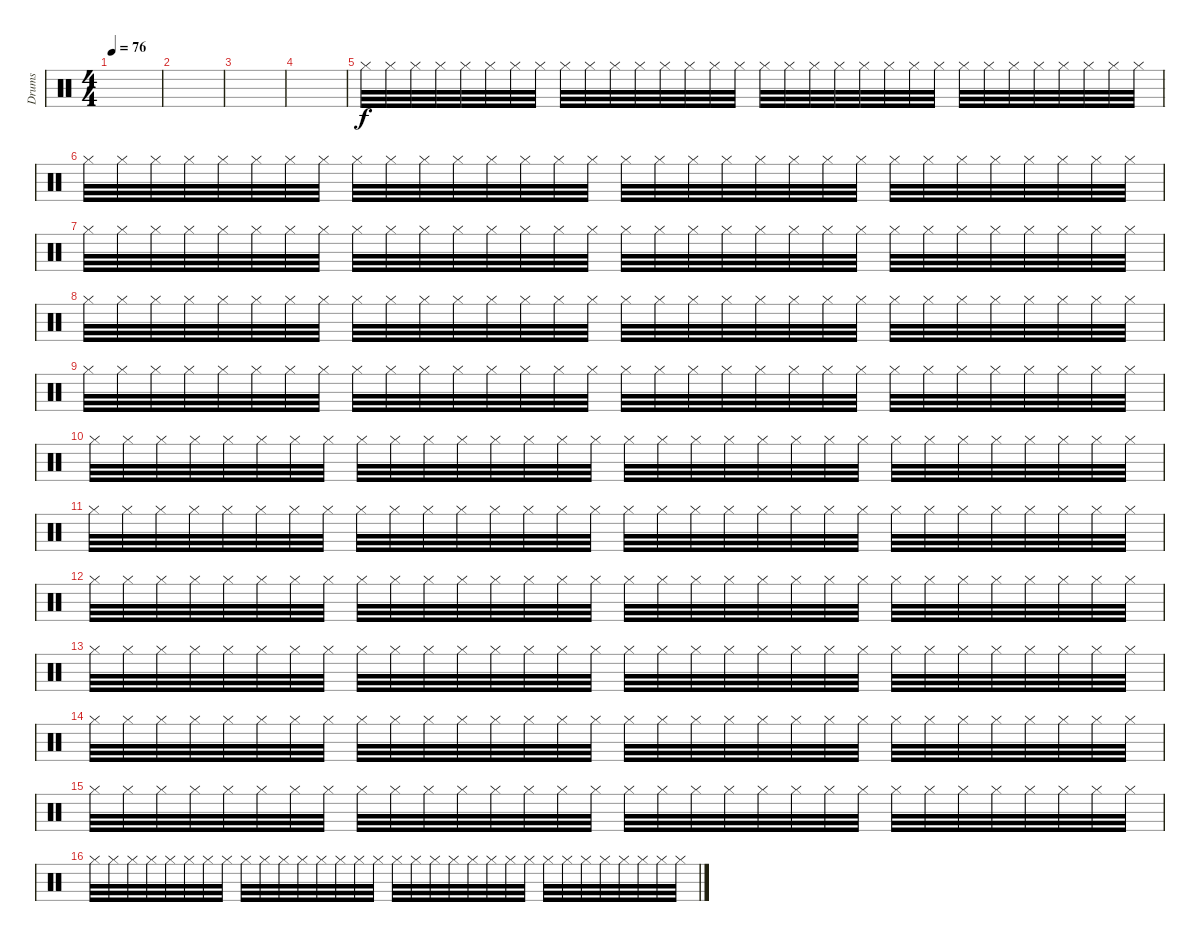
\track ("Drumkit" "Drums") {instrument percussion}
\staff {score}
\articulation defaults
\ts (4 4)
\tempo 76
\clef neutral
\ks c
|
|
|
|
"Hi-Hat (closed)".32 "Hi-Hat (closed)".32 "Hi-Hat (closed)".32 "Hi-Hat (closed)".32 "Hi-Hat (closed)".32 "Hi-Hat (closed)".32 "Hi-Hat (closed)".32 "Hi-Hat (closed)".32 "Hi-Hat (closed)".32 "Hi-Hat (closed)".32 "Hi-Hat (closed)".32 "Hi-Hat (closed)".32 "Hi-Hat (closed)".32 "Hi-Hat (closed)".32 "Hi-Hat (closed)".32 "Hi-Hat (closed)".32 "Hi-Hat (closed)".32 "Hi-Hat (closed)".32 "Hi-Hat (closed)".32 "Hi-Hat (closed)".32 "Hi-Hat (closed)".32 "Hi-Hat (closed)".32 "Hi-Hat (closed)".32 "Hi-Hat (closed)".32 "Hi-Hat (closed)".32 "Hi-Hat (closed)".32 "Hi-Hat (closed)".32 "Hi-Hat (closed)".32 "Hi-Hat (closed)".32 "Hi-Hat (closed)".32 "Hi-Hat (closed)".32 "Hi-Hat (closed)".32 |
"Hi-Hat (closed)".32 "Hi-Hat (closed)".32 "Hi-Hat (closed)".32 "Hi-Hat (closed)".32 "Hi-Hat (closed)".32 "Hi-Hat (closed)".32 "Hi-Hat (closed)".32 "Hi-Hat (closed)".32 "Hi-Hat (closed)".32 "Hi-Hat (closed)".32 "Hi-Hat (closed)".32 "Hi-Hat (closed)".32 "Hi-Hat (closed)".32 "Hi-Hat (closed)".32 "Hi-Hat (closed)".32 "Hi-Hat (closed)".32 "Hi-Hat (closed)".32 "Hi-Hat (closed)".32 "Hi-Hat (closed)".32 "Hi-Hat (closed)".32 "Hi-Hat (closed)".32 "Hi-Hat (closed)".32 "Hi-Hat (closed)".32 "Hi-Hat (closed)".32 "Hi-Hat (closed)".32 "Hi-Hat (closed)".32 "Hi-Hat (closed)".32 "Hi-Hat (closed)".32 "Hi-Hat (closed)".32 "Hi-Hat (closed)".32 "Hi-Hat (closed)".32 "Hi-Hat (closed)".32 |
"Hi-Hat (closed)".32 "Hi-Hat (closed)".32 "Hi-Hat (closed)".32 "Hi-Hat (closed)".32 "Hi-Hat (closed)".32 "Hi-Hat (closed)".32 "Hi-Hat (closed)".32 "Hi-Hat (closed)".32 "Hi-Hat (closed)".32 "Hi-Hat (closed)".32 "Hi-Hat (closed)".32 "Hi-Hat (closed)".32 "Hi-Hat (closed)".32 "Hi-Hat (closed)".32 "Hi-Hat (closed)".32 "Hi-Hat (closed)".32 "Hi-Hat (closed)".32 "Hi-Hat (closed)".32 "Hi-Hat (closed)".32 "Hi-Hat (closed)".32 "Hi-Hat (closed)".32 "Hi-Hat (closed)".32 "Hi-Hat (closed)".32 "Hi-Hat (closed)".32 "Hi-Hat (closed)".32 "Hi-Hat (closed)".32 "Hi-Hat (closed)".32 "Hi-Hat (closed)".32 "Hi-Hat (closed)".32 "Hi-Hat (closed)".32 "Hi-Hat (closed)".32 "Hi-Hat (closed)".32 |
"Hi-Hat (closed)".32 "Hi-Hat (closed)".32 "Hi-Hat (closed)".32 "Hi-Hat (closed)".32 "Hi-Hat (closed)".32 "Hi-Hat (closed)".32 "Hi-Hat (closed)".32 "Hi-Hat (closed)".32 "Hi-Hat (closed)".32 "Hi-Hat (closed)".32 "Hi-Hat (closed)".32 "Hi-Hat (closed)".32 "Hi-Hat (closed)".32 "Hi-Hat (closed)".32 "Hi-Hat (closed)".32 "Hi-Hat (closed)".32 "Hi-Hat (closed)".32 "Hi-Hat (closed)".32 "Hi-Hat (closed)".32 "Hi-Hat (closed)".32 "Hi-Hat (closed)".32 "Hi-Hat (closed)".32 "Hi-Hat (closed)".32 "Hi-Hat (closed)".32 "Hi-Hat (closed)".32 "Hi-Hat (closed)".32 "Hi-Hat (closed)".32 "Hi-Hat (closed)".32 "Hi-Hat (closed)".32 "Hi-Hat (closed)".32 "Hi-Hat (closed)".32 "Hi-Hat (closed)".32 |
"Hi-Hat (closed)".32 "Hi-Hat (closed)".32 "Hi-Hat (closed)".32 "Hi-Hat (closed)".32 "Hi-Hat (closed)".32 "Hi-Hat (closed)".32 "Hi-Hat (closed)".32 "Hi-Hat (closed)".32 "Hi-Hat (closed)".32 "Hi-Hat (closed)".32 "Hi-Hat (closed)".32 "Hi-Hat (closed)".32 "Hi-Hat (closed)".32 "Hi-Hat (closed)".32 "Hi-Hat (closed)".32 "Hi-Hat (closed)".32 "Hi-Hat (closed)".32 "Hi-Hat (closed)".32 "Hi-Hat (closed)".32 "Hi-Hat (closed)".32 "Hi-Hat (closed)".32 "Hi-Hat (closed)".32 "Hi-Hat (closed)".32 "Hi-Hat (closed)".32 "Hi-Hat (closed)".32 "Hi-Hat (closed)".32 "Hi-Hat (closed)".32 "Hi-Hat (closed)".32 "Hi-Hat (closed)".32 "Hi-Hat (closed)".32 "Hi-Hat (closed)".32 "Hi-Hat (closed)".32 |
"Hi-Hat (closed)".32 "Hi-Hat (closed)".32 "Hi-Hat (closed)".32 "Hi-Hat (closed)".32 "Hi-Hat (closed)".32 "Hi-Hat (closed)".32 "Hi-Hat (closed)".32 "Hi-Hat (closed)".32 "Hi-Hat (closed)".32 "Hi-Hat (closed)".32 "Hi-Hat (closed)".32 "Hi-Hat (closed)".32 "Hi-Hat (closed)".32 "Hi-Hat (closed)".32 "Hi-Hat (closed)".32 "Hi-Hat (closed)".32 "Hi-Hat (closed)".32 "Hi-Hat (closed)".32 "Hi-Hat (closed)".32 "Hi-Hat (closed)".32 "Hi-Hat (closed)".32 "Hi-Hat (closed)".32 "Hi-Hat (closed)".32 "Hi-Hat (closed)".32 "Hi-Hat (closed)".32 "Hi-Hat (closed)".32 "Hi-Hat (closed)".32 "Hi-Hat (closed)".32 "Hi-Hat (closed)".32 "Hi-Hat (closed)".32 "Hi-Hat (closed)".32 "Hi-Hat (closed)".32 |
"Hi-Hat (closed)".32 "Hi-Hat (closed)".32 "Hi-Hat (closed)".32 "Hi-Hat (closed)".32 "Hi-Hat (closed)".32 "Hi-Hat (closed)".32 "Hi-Hat (closed)".32 "Hi-Hat (closed)".32 "Hi-Hat (closed)".32 "Hi-Hat (closed)".32 "Hi-Hat (closed)".32 "Hi-Hat (closed)".32 "Hi-Hat (closed)".32 "Hi-Hat (closed)".32 "Hi-Hat (closed)".32 "Hi-Hat (closed)".32 "Hi-Hat (closed)".32 "Hi-Hat (closed)".32 "Hi-Hat (closed)".32 "Hi-Hat (closed)".32 "Hi-Hat (closed)".32 "Hi-Hat (closed)".32 "Hi-Hat (closed)".32 "Hi-Hat (closed)".32 "Hi-Hat (closed)".32 "Hi-Hat (closed)".32 "Hi-Hat (closed)".32 "Hi-Hat (closed)".32 "Hi-Hat (closed)".32 "Hi-Hat (closed)".32 "Hi-Hat (closed)".32 "Hi-Hat (closed)".32 |
"Hi-Hat (closed)".32 "Hi-Hat (closed)".32 "Hi-Hat (closed)".32 "Hi-Hat (closed)".32 "Hi-Hat (closed)".32 "Hi-Hat (closed)".32 "Hi-Hat (closed)".32 "Hi-Hat (closed)".32 "Hi-Hat (closed)".32 "Hi-Hat (closed)".32 "Hi-Hat (closed)".32 "Hi-Hat (closed)".32 "Hi-Hat (closed)".32 "Hi-Hat (closed)".32 "Hi-Hat (closed)".32 "Hi-Hat (closed)".32 "Hi-Hat (closed)".32 "Hi-Hat (closed)".32 "Hi-Hat (closed)".32 "Hi-Hat (closed)".32 "Hi-Hat (closed)".32 "Hi-Hat (closed)".32 "Hi-Hat (closed)".32 "Hi-Hat (closed)".32 "Hi-Hat (closed)".32 "Hi-Hat (closed)".32 "Hi-Hat (closed)".32 "Hi-Hat (closed)".32 "Hi-Hat (closed)".32 "Hi-Hat (closed)".32 "Hi-Hat (closed)".32 "Hi-Hat (closed)".32 |
"Hi-Hat (closed)".32 "Hi-Hat (closed)".32 "Hi-Hat (closed)".32 "Hi-Hat (closed)".32 "Hi-Hat (closed)".32 "Hi-Hat (closed)".32 "Hi-Hat (closed)".32 "Hi-Hat (closed)".32 "Hi-Hat (closed)".32 "Hi-Hat (closed)".32 "Hi-Hat (closed)".32 "Hi-Hat (closed)".32 "Hi-Hat (closed)".32 "Hi-Hat (closed)".32 "Hi-Hat (closed)".32 "Hi-Hat (closed)".32 "Hi-Hat (closed)".32 "Hi-Hat (closed)".32 "Hi-Hat (closed)".32 "Hi-Hat (closed)".32 "Hi-Hat (closed)".32 "Hi-Hat (closed)".32 "Hi-Hat (closed)".32 "Hi-Hat (closed)".32 "Hi-Hat (closed)".32 "Hi-Hat (closed)".32 "Hi-Hat (closed)".32 "Hi-Hat (closed)".32 "Hi-Hat (closed)".32 "Hi-Hat (closed)".32 "Hi-Hat (closed)".32 "Hi-Hat (closed)".32 |
"Hi-Hat (closed)".32 "Hi-Hat (closed)".32 "Hi-Hat (closed)".32 "Hi-Hat (closed)".32 "Hi-Hat (closed)".32 "Hi-Hat (closed)".32 "Hi-Hat (closed)".32 "Hi-Hat (closed)".32 "Hi-Hat (closed)".32 "Hi-Hat (closed)".32 "Hi-Hat (closed)".32 "Hi-Hat (closed)".32 "Hi-Hat (closed)".32 "Hi-Hat (closed)".32 "Hi-Hat (closed)".32 "Hi-Hat (closed)".32 "Hi-Hat (closed)".32 "Hi-Hat (closed)".32 "Hi-Hat (closed)".32 "Hi-Hat (closed)".32 "Hi-Hat (closed)".32 "Hi-Hat (closed)".32 "Hi-Hat (closed)".32 "Hi-Hat (closed)".32 "Hi-Hat (closed)".32 "Hi-Hat (closed)".32 "Hi-Hat (closed)".32 "Hi-Hat (closed)".32 "Hi-Hat (closed)".32 "Hi-Hat (closed)".32 "Hi-Hat (closed)".32 "Hi-Hat (closed)".32 |
"Hi-Hat (closed)".32 "Hi-Hat (closed)".32 "Hi-Hat (closed)".32 "Hi-Hat (closed)".32 "Hi-Hat (closed)".32 "Hi-Hat (closed)".32 "Hi-Hat (closed)".32 "Hi-Hat (closed)".32 "Hi-Hat (closed)".32 "Hi-Hat (closed)".32 "Hi-Hat (closed)".32 "Hi-Hat (closed)".32 "Hi-Hat (closed)".32 "Hi-Hat (closed)".32 "Hi-Hat (closed)".32 "Hi-Hat (closed)".32 "Hi-Hat (closed)".32 "Hi-Hat (closed)".32 "Hi-Hat (closed)".32 "Hi-Hat (closed)".32 "Hi-Hat (closed)".32 "Hi-Hat (closed)".32 "Hi-Hat (closed)".32 "Hi-Hat (closed)".32 "Hi-Hat (closed)".32 "Hi-Hat (closed)".32 "Hi-Hat (closed)".32 "Hi-Hat (closed)".32 "Hi-Hat (closed)".32 "Hi-Hat (closed)".32 "Hi-Hat (closed)".32 "Hi-Hat (closed)".32 |
"Hi-Hat (closed)".32 "Hi-Hat (closed)".32 "Hi-Hat (closed)".32 "Hi-Hat (closed)".32 "Hi-Hat (closed)".32 "Hi-Hat (closed)".32 "Hi-Hat (closed)".32 "Hi-Hat (closed)".32 "Hi-Hat (closed)".32 "Hi-Hat (closed)".32 "Hi-Hat (closed)".32 "Hi-Hat (closed)".32 "Hi-Hat (closed)".32 "Hi-Hat (closed)".32 "Hi-Hat (closed)".32 "Hi-Hat (closed)".32 "Hi-Hat (closed)".32 "Hi-Hat (closed)".32 "Hi-Hat (closed)".32 "Hi-Hat (closed)".32 "Hi-Hat (closed)".32 "Hi-Hat (closed)".32 "Hi-Hat (closed)".32 "Hi-Hat (closed)".32 "Hi-Hat (closed)".32 "Hi-Hat (closed)".32 "Hi-Hat (closed)".32 "Hi-Hat (closed)".32 "Hi-Hat (closed)".32 "Hi-Hat (closed)".32 "Hi-Hat (closed)".32 "Hi-Hat (closed)".32
